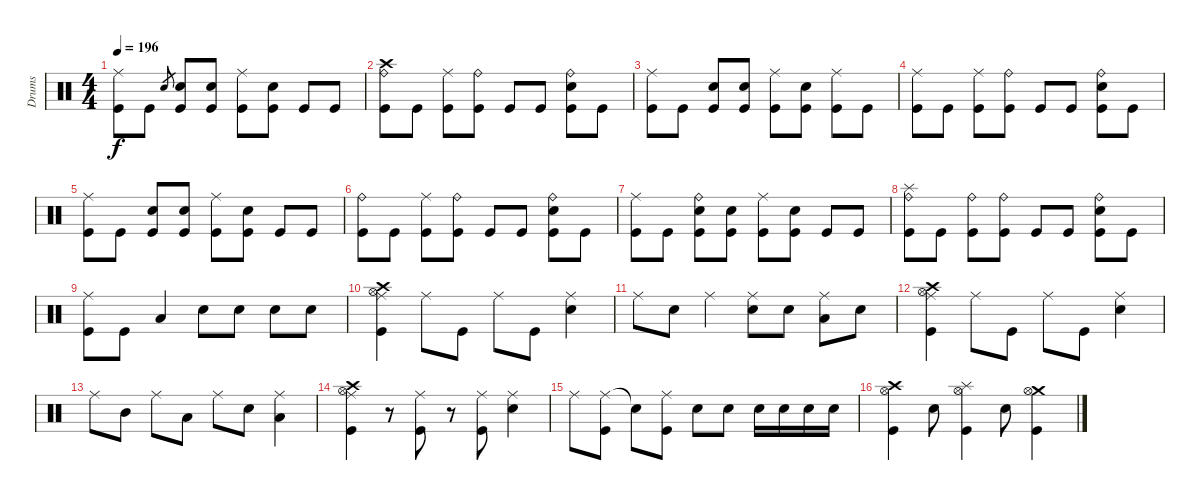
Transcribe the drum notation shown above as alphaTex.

\track ("Drums" "Drums") {instrument percussion}
\staff {score}
\articulation defaults
\ts (4 4)
\tempo 196
\clef neutral
\ks c
("Ride (middle)" "Kick (hit)").8{dy f} "Kick (hit)".8 "Electric Snare (hit)".8{gr} ("Electric Snare (hit)" "Kick (hit)").8 ("Electric Snare (hit)" "Kick (hit)").8 ("Ride (middle)" "Kick (hit)").8 ("Electric Snare (hit)" "Kick (hit)").8 "Kick (hit)".8 "Kick (hit)".8 |
("Crash high (hit)" "Ride (bell)" "Kick (hit)").8 "Kick (hit)".8 ("Ride (middle)" "Kick (hit)").8 ("Ride (bell)" "Kick (hit)").8 "Kick (hit)".8 "Kick (hit)".8 ("Ride (bell)" "Electric Snare (hit)" "Kick (hit)").8 "Kick (hit)".8 |
("Ride (middle)" "Kick (hit)").8 "Kick (hit)".8 ("Electric Snare (hit)" "Kick (hit)").8 ("Electric Snare (hit)" "Kick (hit)").8 ("Ride (middle)" "Kick (hit)").8 ("Electric Snare (hit)" "Kick (hit)").8 ("Ride (middle)" "Kick (hit)").8 "Kick (hit)".8 |
("Ride (middle)" "Kick (hit)").8 "Kick (hit)".8 ("Ride (middle)" "Kick (hit)").8 ("Ride (bell)" "Kick (hit)").8 "Kick (hit)".8 "Kick (hit)".8 ("Ride (bell)" "Electric Snare (hit)" "Kick (hit)").8 "Kick (hit)".8 |
("Ride (middle)" "Kick (hit)").8 "Kick (hit)".8 ("Electric Snare (hit)" "Kick (hit)").8 ("Electric Snare (hit)" "Kick (hit)").8 ("Ride (middle)" "Kick (hit)").8 ("Electric Snare (hit)" "Kick (hit)").8 "Kick (hit)".8 "Kick (hit)".8 |
("Ride (bell)" "Kick (hit)").8 "Kick (hit)".8 ("Ride (middle)" "Kick (hit)").8 ("Ride (bell)" "Kick (hit)").8 "Kick (hit)".8 "Kick (hit)".8 ("Ride (bell)" "Electric Snare (hit)" "Kick (hit)").8 "Kick (hit)".8 |
("Ride (middle)" "Kick (hit)").8 "Kick (hit)".8 ("Ride (bell)" "Electric Snare (hit)" "Kick (hit)").8 ("Electric Snare (hit)" "Kick (hit)").8 ("Ride (middle)" "Kick (hit)").8 ("Electric Snare (hit)" "Kick (hit)").8 "Kick (hit)".8 "Kick (hit)".8 |
("Splash (hit)" "Ride (bell)" "Kick (hit)").8 "Kick (hit)".8 ("Ride (bell)" "Kick (hit)").8 ("Ride (bell)" "Kick (hit)").8 "Kick (hit)".8 "Kick (hit)".8 ("Ride (bell)" "Electric Snare (hit)" "Kick (hit)").8 "Kick (hit)".8 |
("Ride (middle)" "Kick (hit)").8 "Kick (hit)".8 "Low Tom (hit)".4 "Electric Snare (hit)".8 "Electric Snare (hit)".8 "Electric Snare (hit)".8 "Electric Snare (hit)".8 |
("Ride (middle)" "Crash high (hit)" "Hi-Hat (open)" "Kick (hit)").4 "Ride (middle)".8 "Kick (hit)".8 "Ride (middle)".8 "Kick (hit)".8 ("Ride (middle)" "Electric Snare (hit)").4 |
"Ride (middle)".8 "Electric Snare (hit)".8 "Ride (middle)".4 ("Ride (middle)" "Electric Snare (hit)").8 "Electric Snare (hit)".8 ("Ride (middle)" "Low Tom (hit)").8 "Electric Snare (hit)".8 |
("Ride (middle)" "Crash high (hit)" "Hi-Hat (open)" "Kick (hit)").4 "Ride (middle)".8 "Kick (hit)".8 "Ride (middle)".8 "Kick (hit)".8 ("Ride (middle)" "Electric Snare (hit)").4 |
"Ride (middle)".8 "Mid Tom (hit)".8 "Ride (middle)".8 "Low Tom (hit)".8 "Ride (middle)".8 "Electric Snare (hit)".8 ("Ride (middle)" "Low Tom (hit)").4 |
("Ride (middle)" "Crash high (hit)" "Hi-Hat (open)" "Kick (hit)").4 r.8 ("Ride (middle)" "Kick (hit)").8 r.8 ("Ride (middle)" "Kick (hit)").8 ("Ride (middle)" "Electric Snare (hit)").4 |
"Ride (middle)".8 ("Ride (middle)" "Kick (hit)").8 "Snare (hit)"{t}.8 ("Ride (middle)" "Kick (hit)").8 "Electric Snare (hit)".8 "Electric Snare (hit)".8 "Electric Snare (hit)".16 "Electric Snare (hit)".16 "Electric Snare (hit)".16 "Electric Snare (hit)".16 |
("Crash high (hit)" "Hi-Hat (open)" "Kick (hit)").4 "Electric Snare (hit)".8 ("Splash (hit)" "Hi-Hat (open)" "Kick (hit)").4 "Electric Snare (hit)".8 ("Crash medium (hit)" "Hi-Hat (open)" "Kick (hit)").4
